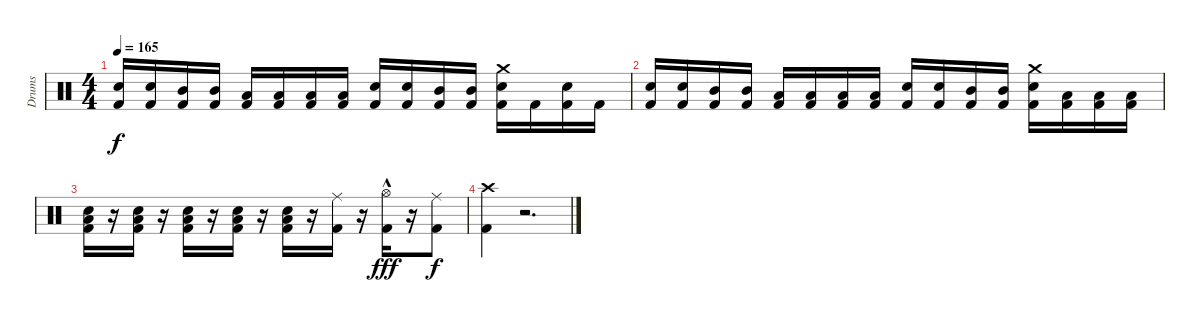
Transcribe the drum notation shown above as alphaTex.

\track ("Drums" "Drums") {instrument percussion}
\staff {score}
\articulation defaults
\ts (4 4)
\tempo 165
\clef neutral
\ks c
("Snare (hit) 2" "Kick (hit) 2").16{dy f} ("Snare (hit) 2" "Kick (hit) 2").16 ("Mid Tom (hit)" "Kick (hit) 2").16 ("Mid Tom (hit)" "Kick (hit) 2").16 ("Low Tom (hit)" "Kick (hit) 2").16 ("Low Tom (hit)" "Kick (hit) 2").16 ("Low Floor Tom (hit)" "Kick (hit) 2").16 ("Low Floor Tom (hit)" "Kick (hit) 2").16 ("Snare (hit) 2" "Kick (hit) 2").16 ("Snare (hit) 2" "Kick (hit) 2").16 ("Mid Tom (hit)" "Kick (hit) 2").16 ("Mid Tom (hit)" "Kick (hit) 2").16 ("Crash medium (hit)" "Snare (hit) 2" "Kick (hit) 2").16 "Kick (hit) 2".16 ("Snare (hit) 2" "Kick (hit) 2").16 "Kick (hit) 2".16 |
("Snare (hit) 2" "Kick (hit) 2").16 ("Snare (hit) 2" "Kick (hit) 2").16 ("Mid Tom (hit)" "Kick (hit) 2").16 ("Mid Tom (hit)" "Kick (hit) 2").16 ("Low Tom (hit)" "Kick (hit) 2").16 ("Low Tom (hit)" "Kick (hit) 2").16 ("Low Floor Tom (hit)" "Kick (hit) 2").16 ("Low Floor Tom (hit)" "Kick (hit) 2").16 ("Snare (hit) 2" "Kick (hit) 2").16 ("Snare (hit) 2" "Kick (hit) 2").16 ("Mid Tom (hit)" "Kick (hit) 2").16 ("Mid Tom (hit)" "Kick (hit) 2").16 ("Crash medium (hit)" "Snare (hit) 2" "Kick (hit) 2").16 ("Low Tom (hit)" "Kick (hit) 2").16 ("Low Tom (hit)" "Kick (hit) 2").16 ("Low Tom (hit)" "Kick (hit) 2").16 |
("Snare (hit) 2" "Low Floor Tom (hit)" "Kick (hit) 2").16 r.16 ("Snare (hit) 2" "Low Floor Tom (hit)" "Kick (hit) 2").16 r.16 ("Snare (hit) 2" "Low Floor Tom (hit)" "Kick (hit) 2").16 r.16 ("Snare (hit) 2" "Low Floor Tom (hit)" "Kick (hit) 2").16 r.16 ("Snare (hit) 2" "Low Floor Tom (hit)" "Kick (hit) 2").16 r.16 ("Ride (middle)" "Kick (hit) 2").16 r.16 ("Hi-Hat (open)"{hac} "Kick (hit) 2").16{dy fff} r.16 ("Ride (middle)" "Kick (hit) 2").8{dy f} |
("Crash high (hit)" "Kick (hit) 2").4 r.2{d}
